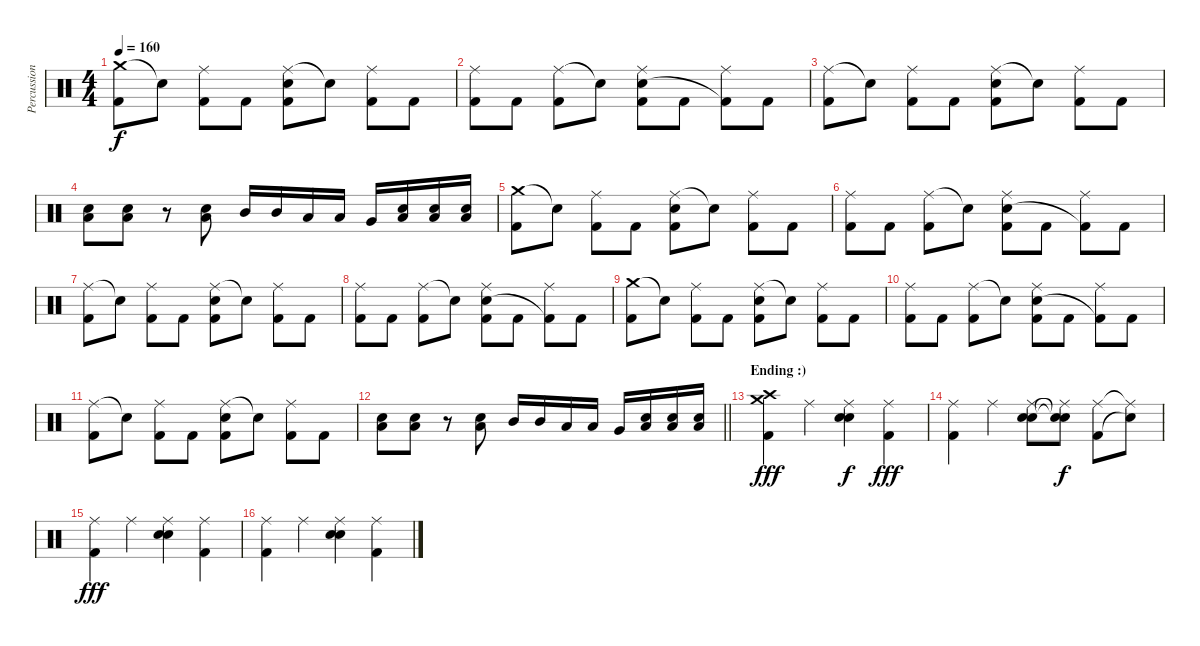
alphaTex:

\track ("Percussion" "Percussion") {instrument percussion}
\staff {score}
\articulation defaults
\ts (4 4)
\tempo 160
\clef neutral
\ks c
("Crash medium (hit)" "Kick (hit) 2").8{dy f} "Snare (hit)"{t}.8 ("Ride (middle)" "Kick (hit) 2").8 "Kick (hit) 2".8 ("Ride (middle)" "Snare (hit) 2" "Kick (hit) 2").8 "Snare (hit)"{t}.8 ("Ride (middle)" "Kick (hit) 2").8 "Kick (hit) 2".8 |
("Ride (middle)" "Kick (hit) 2").8 "Kick (hit) 2".8 ("Ride (middle)" "Kick (hit) 2").8 "Snare (hit)"{t}.8 ("Ride (middle)" "Snare (hit) 2" "Kick (hit) 2").8 "Kick (hit) 2".8 ("Ride (middle)" "Kick (hit) 2"{t}).8 "Kick (hit) 2".8 |
("Ride (middle)" "Kick (hit) 2").8 "Snare (hit)"{t}.8 ("Ride (middle)" "Kick (hit) 2").8 "Kick (hit) 2".8 ("Ride (middle)" "Snare (hit) 2" "Kick (hit) 2").8 "Snare (hit)"{t}.8 ("Ride (middle)" "Kick (hit) 2").8 "Kick (hit) 2".8 |
("Low Floor Tom (hit)" "Snare (hit) 2").8 ("Low Floor Tom (hit)" "Snare (hit) 2").8 r.8 ("Low Floor Tom (hit)" "Snare (hit) 2").8 "Mid Tom (hit)".16 "Mid Tom (hit)".16 "Low Tom (hit)".16 "Low Tom (hit)".16 "Very Low Tom (hit)".16 ("Low Floor Tom (hit)" "Snare (hit) 2").16 ("Low Floor Tom (hit)" "Snare (hit) 2").16 ("Low Floor Tom (hit)" "Snare (hit) 2").16 |
("Crash medium (hit)" "Kick (hit) 2").8 "Snare (hit)"{t}.8 ("Ride (middle)" "Kick (hit) 2").8 "Kick (hit) 2".8 ("Ride (middle)" "Snare (hit) 2" "Kick (hit) 2").8 "Snare (hit)"{t}.8 ("Ride (middle)" "Kick (hit) 2").8 "Kick (hit) 2".8 |
("Ride (middle)" "Kick (hit) 2").8 "Kick (hit) 2".8 ("Ride (middle)" "Kick (hit) 2").8 "Snare (hit)"{t}.8 ("Ride (middle)" "Snare (hit) 2" "Kick (hit) 2").8 "Kick (hit) 2".8 ("Ride (middle)" "Kick (hit) 2"{t}).8 "Kick (hit) 2".8 |
("Ride (middle)" "Kick (hit) 2").8 "Snare (hit)"{t}.8 ("Ride (middle)" "Kick (hit) 2").8 "Kick (hit) 2".8 ("Ride (middle)" "Snare (hit) 2" "Kick (hit) 2").8 "Snare (hit)"{t}.8 ("Ride (middle)" "Kick (hit) 2").8 "Kick (hit) 2".8 |
("Ride (middle)" "Kick (hit) 2").8 "Kick (hit) 2".8 ("Ride (middle)" "Kick (hit) 2").8 "Snare (hit)"{t}.8 ("Ride (middle)" "Snare (hit) 2" "Kick (hit) 2").8 "Kick (hit) 2".8 ("Ride (middle)" "Kick (hit) 2"{t}).8 "Kick (hit) 2".8 |
("Crash medium (hit)" "Kick (hit) 2").8 "Snare (hit)"{t}.8 ("Ride (middle)" "Kick (hit) 2").8 "Kick (hit) 2".8 ("Ride (middle)" "Snare (hit) 2" "Kick (hit) 2").8 "Snare (hit)"{t}.8 ("Ride (middle)" "Kick (hit) 2").8 "Kick (hit) 2".8 |
("Ride (middle)" "Kick (hit) 2").8 "Kick (hit) 2".8 ("Ride (middle)" "Kick (hit) 2").8 "Snare (hit)"{t}.8 ("Ride (middle)" "Snare (hit) 2" "Kick (hit) 2").8 "Kick (hit) 2".8 ("Ride (middle)" "Kick (hit) 2"{t}).8 "Kick (hit) 2".8 |
("Ride (middle)" "Kick (hit) 2").8 "Snare (hit)"{t}.8 ("Ride (middle)" "Kick (hit) 2").8 "Kick (hit) 2".8 ("Ride (middle)" "Snare (hit) 2" "Kick (hit) 2").8 "Snare (hit)"{t}.8 ("Ride (middle)" "Kick (hit) 2").8 "Kick (hit) 2".8 |
\barLineRight lightlight
("Low Floor Tom (hit)" "Snare (hit) 2").8 ("Low Floor Tom (hit)" "Snare (hit) 2").8 r.8 ("Low Floor Tom (hit)" "Snare (hit) 2").8 "Mid Tom (hit)".16 "Mid Tom (hit)".16 "Low Tom (hit)".16 "Low Tom (hit)".16 "Very Low Tom (hit)".16 ("Low Floor Tom (hit)" "Snare (hit) 2").16 ("Low Floor Tom (hit)" "Snare (hit) 2").16 ("Low Floor Tom (hit)" "Snare (hit) 2").16 |
\section ("" "Ending :)")
("Crash high (hit)" "Kick (hit) 2" "Crash medium (hit)").4{dy fff} "Ride (middle)".4 ("Ride (middle)" "Snare (hit) 2" "Electric Snare (hit)").4{dy f} ("Ride (middle)" "Kick (hit) 2").4{dy fff} |
("Kick (hit) 2" "Ride (middle)").4 "Ride (middle)".4 ("Snare (hit) 2" "Electric Snare (hit)" "Ride (middle)").8 ("Ride (middle)"{t} "Snare (hit)"{t} "Snare (hit)"{t}).8{dy f} ("Ride (middle)" "Kick (hit) 2").8 ("Ride (middle)"{t} "Snare (hit)"{t}).8 |
("Kick (hit) 2" "Ride (middle)").4{dy fff} "Ride (middle)".4 ("Snare (hit) 2" "Electric Snare (hit)" "Ride (middle)").4 ("Kick (hit) 2" "Ride (middle)").4 |
("Kick (hit) 2" "Ride (middle)").4 "Ride (middle)".4 ("Snare (hit) 2" "Electric Snare (hit)" "Ride (middle)").4 ("Kick (hit) 2" "Ride (middle)").4
